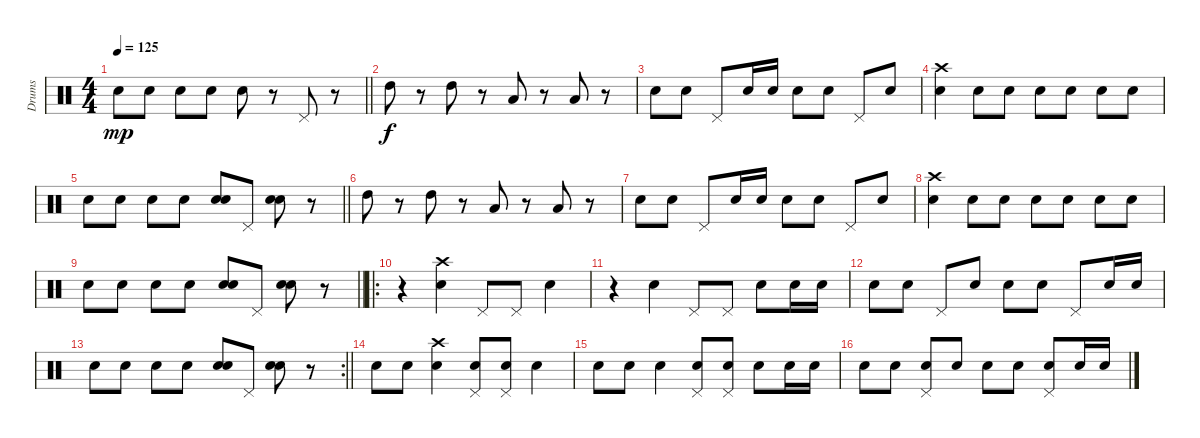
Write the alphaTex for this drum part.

\track ("Drums" "Drums") {instrument percussion}
\staff {score}
\articulation defaults
\ts (4 4)
\tempo 125
\clef neutral
\barLineRight lightlight
\ks c "Electric Snare (hit)".8{dy mp} "Electric Snare (hit)".8 "Electric Snare (hit)".8 "Electric Snare (hit)".8 "Electric Snare (hit)".8
r.8 "Pedal Hi-Hat (hit)".8 r.8 |
"High Tom (hit)".8{dy f} r.8 "High Tom (hit)".8 r.8 "Low Tom (hit)".8 r.8 "Low Tom (hit)".8 r.8 |
"Electric Snare (hit)".8 "Electric Snare (hit)".8 "Pedal Hi-Hat (hit)".8 "Electric Snare (hit)".16 "Electric Snare (hit)".16 "Electric Snare (hit)".8 "Electric Snare (hit)".8 "Pedal Hi-Hat (hit)".8 "Electric Snare (hit)".8 |
("Crash high (hit)" "Electric Snare (hit)").4 "Electric Snare (hit)".8 "Electric Snare (hit)".8 "Electric Snare (hit)".8 "Electric Snare (hit)".8 "Electric Snare (hit)".8 "Electric Snare (hit)".8 |
\barLineRight lightlight "Electric Snare (hit)".8 "Electric Snare (hit)".8 "Electric Snare (hit)".8 "Electric Snare (hit)".8
("Electric Snare (hit)" "Electric Snare (hit)").8 "Pedal Hi-Hat (hit)".8 ("Electric Snare (hit)" "Electric Snare (hit)").8 r.8 |
"High Tom (hit)".8 r.8 "High Tom (hit)".8 r.8 "Low Tom (hit)".8 r.8 "Low Tom (hit)".8 r.8 |
"Electric Snare (hit)".8 "Electric Snare (hit)".8 "Pedal Hi-Hat (hit)".8 "Electric Snare (hit)".16 "Electric Snare (hit)".16 "Electric Snare (hit)".8 "Electric Snare (hit)".8 "Pedal Hi-Hat (hit)".8 "Electric Snare (hit)".8 |
("Crash high (hit)" "Electric Snare (hit)").4 "Electric Snare (hit)".8 "Electric Snare (hit)".8 "Electric Snare (hit)".8 "Electric Snare (hit)".8 "Electric Snare (hit)".8 "Electric Snare (hit)".8 |
\barLineRight lightlight "Electric Snare (hit)".8 "Electric Snare (hit)".8 "Electric Snare (hit)".8 "Electric Snare (hit)".8
("Electric Snare (hit)" "Electric Snare (hit)").8 "Pedal Hi-Hat (hit)".8 ("Electric Snare (hit)" "Electric Snare (hit)").8 r.8 |
\ro
r.4 ("Crash high (hit)" "Electric Snare (hit)").4 "Pedal Hi-Hat (hit)".8 "Pedal Hi-Hat (hit)".8 "Electric Snare (hit)".4 |
r.4 "Electric Snare (hit)".4 "Pedal Hi-Hat (hit)".8 "Pedal Hi-Hat (hit)".8 "Electric Snare (hit)".8 "Electric Snare (hit)".16 "Electric Snare (hit)".16 |
"Electric Snare (hit)".8 "Electric Snare (hit)".8 "Pedal Hi-Hat (hit)".8 "Electric Snare (hit)".8 "Electric Snare (hit)".8 "Electric Snare (hit)".8 "Pedal Hi-Hat (hit)".8 "Electric Snare (hit)".16 "Electric Snare (hit)".16 |
\rc 2
\barLineRight lightlight "Electric Snare (hit)".8 "Electric Snare (hit)".8 "Electric Snare (hit)".8 "Electric Snare (hit)".8
("Electric Snare (hit)" "Electric Snare (hit)").8 "Pedal Hi-Hat (hit)".8 ("Electric Snare (hit)" "Electric Snare (hit)").8 r.8 |
"Electric Snare (hit)".8 "Electric Snare (hit)".8 ("Crash high (hit)" "Electric Snare (hit)").4 ("Pedal Hi-Hat (hit)" "Electric Snare (hit)").8 ("Pedal Hi-Hat (hit)" "Electric Snare (hit)").8 "Electric Snare (hit)".4 |
"Electric Snare (hit)".8 "Electric Snare (hit)".8 "Electric Snare (hit)".4 ("Pedal Hi-Hat (hit)" "Electric Snare (hit)").8 ("Pedal Hi-Hat (hit)" "Electric Snare (hit)").8 "Electric Snare (hit)".8 "Electric Snare (hit)".16 "Electric Snare (hit)".16 |
"Electric Snare (hit)".8 "Electric Snare (hit)".8 ("Pedal Hi-Hat (hit)" "Electric Snare (hit)").8 "Electric Snare (hit)".8 "Electric Snare (hit)".8 "Electric Snare (hit)".8 ("Pedal Hi-Hat (hit)" "Electric Snare (hit)").8 "Electric Snare (hit)".16 "Electric Snare (hit)".16
